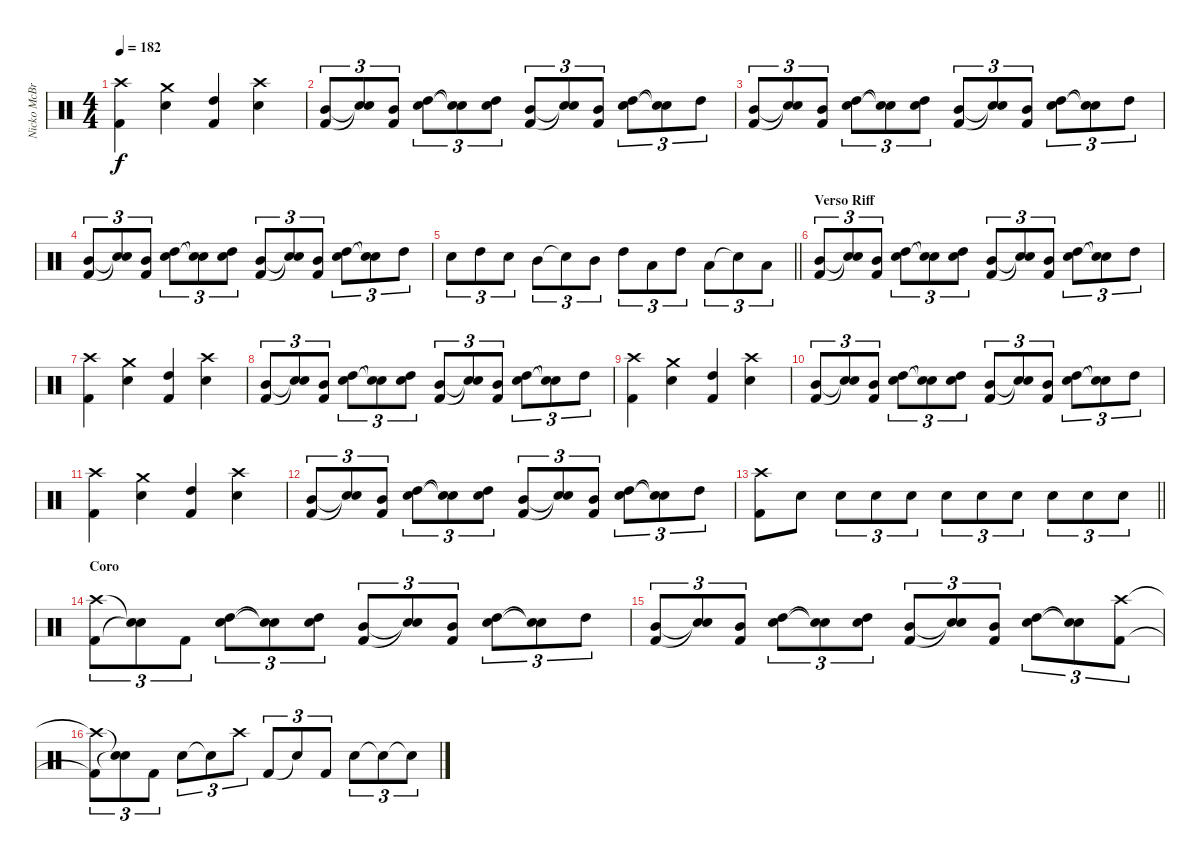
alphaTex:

\track ("Nicko McBrain" "Nicko McBr") {instrument percussion}
\staff {score}
\articulation defaults
\ts (4 4)
\tempo 182
\clef neutral
\ks c
("Kick (hit) 2" "Crash high (hit)").4{dy f} ("Snare (hit) 2" "Crash medium (hit)").4 ("High Tom (hit)" "Kick (hit) 2").4 ("Snare (hit) 2" "Crash high (hit)").4 |
("Mid Tom (hit)" "Kick (hit) 2").8{tu (3 2)} ("Snare (hit)"{t} "Snare (hit)"{t}).8{tu (3 2)} ("Mid Tom (hit)" "Kick (hit) 2").8{tu (3 2)} ("High Tom (hit)" "Snare (hit) 2").8{tu (3 2)} ("Snare (hit)"{t} "Snare (hit)"{t}).8{tu (3 2)} ("High Tom (hit)" "Snare (hit) 2").8{tu (3 2)} ("Mid Tom (hit)" "Kick (hit) 2").8{tu (3 2)} ("Snare (hit)"{t} "Snare (hit)"{t}).8{tu (3 2)} ("Mid Tom (hit)" "Kick (hit) 2").8{tu (3 2)} ("High Tom (hit)" "Snare (hit) 2").8{tu (3 2)} ("Snare (hit)"{t} "Snare (hit)"{t}).8{tu (3 2)} "High Tom (hit)".8{tu (3 2)} |
("Mid Tom (hit)" "Kick (hit) 2").8{tu (3 2)} ("Snare (hit)"{t} "Snare (hit)"{t}).8{tu (3 2)} ("Mid Tom (hit)" "Kick (hit) 2").8{tu (3 2)} ("High Tom (hit)" "Snare (hit) 2").8{tu (3 2)} ("Snare (hit)"{t} "Snare (hit)"{t}).8{tu (3 2)} ("High Tom (hit)" "Snare (hit) 2").8{tu (3 2)} ("Mid Tom (hit)" "Kick (hit) 2").8{tu (3 2)} ("Snare (hit)"{t} "Snare (hit)"{t}).8{tu (3 2)} ("Mid Tom (hit)" "Kick (hit) 2").8{tu (3 2)} ("High Tom (hit)" "Snare (hit) 2").8{tu (3 2)} ("Snare (hit)"{t} "Snare (hit)"{t}).8{tu (3 2)} "High Tom (hit)".8{tu (3 2)} |
("Mid Tom (hit)" "Kick (hit) 2").8{tu (3 2)} ("Snare (hit)"{t} "Snare (hit)"{t}).8{tu (3 2)} ("Mid Tom (hit)" "Kick (hit) 2").8{tu (3 2)} ("High Tom (hit)" "Snare (hit) 2").8{tu (3 2)} ("Snare (hit)"{t} "Snare (hit)"{t}).8{tu (3 2)} ("High Tom (hit)" "Snare (hit) 2").8{tu (3 2)} ("Mid Tom (hit)" "Kick (hit) 2").8{tu (3 2)} ("Snare (hit)"{t} "Snare (hit)"{t}).8{tu (3 2)} ("Mid Tom (hit)" "Kick (hit) 2").8{tu (3 2)} ("High Tom (hit)" "Snare (hit) 2").8{tu (3 2)} ("Snare (hit)"{t} "Snare (hit)"{t}).8{tu (3 2)} "High Tom (hit)".8{tu (3 2)} |
\barLineRight lightlight "Snare (hit) 2".8{tu (3 2)} "High Tom (hit)".8{tu (3 2)} "Snare (hit) 2".8{tu (3 2)} "Mid Tom (hit)".8{tu (3 2)} "Snare (hit)"{t}.8{tu (3 2)} "Mid Tom (hit)".8{tu (3 2)} "High Tom (hit)".8{tu (3 2)} "Low Tom (hit)".8{tu (3 2)} "High Tom (hit)".8{tu (3 2)} "Low Tom (hit)".8{tu (3 2)} "Snare (hit)"{t}.8{tu (3 2)} "Low Tom (hit)".8{tu (3 2)}
|
\section ("" "Verso Riff")
("Mid Tom (hit)" "Kick (hit) 2").8{tu (3 2)} ("Snare (hit)"{t} "Snare (hit)"{t}).8{tu (3 2)} ("Mid Tom (hit)" "Kick (hit) 2").8{tu (3 2)} ("High Tom (hit)" "Snare (hit) 2").8{tu (3 2)} ("Snare (hit)"{t} "Snare (hit)"{t}).8{tu (3 2)} ("High Tom (hit)" "Snare (hit) 2").8{tu (3 2)} ("Mid Tom (hit)" "Kick (hit) 2").8{tu (3 2)} ("Snare (hit)"{t} "Snare (hit)"{t}).8{tu (3 2)} ("Mid Tom (hit)" "Kick (hit) 2").8{tu (3 2)} ("High Tom (hit)" "Snare (hit) 2").8{tu (3 2)} ("Snare (hit)"{t} "Snare (hit)"{t}).8{tu (3 2)} "High Tom (hit)".8{tu (3 2)} |
("Kick (hit) 2" "Crash high (hit)").4 ("Snare (hit) 2" "Crash medium (hit)").4 ("High Tom (hit)" "Kick (hit) 2").4 ("Snare (hit) 2" "Crash high (hit)").4 |
("Mid Tom (hit)" "Kick (hit) 2").8{tu (3 2)} ("Snare (hit)"{t} "Snare (hit)"{t}).8{tu (3 2)} ("Mid Tom (hit)" "Kick (hit) 2").8{tu (3 2)} ("High Tom (hit)" "Snare (hit) 2").8{tu (3 2)} ("Snare (hit)"{t} "Snare (hit)"{t}).8{tu (3 2)} ("High Tom (hit)" "Snare (hit) 2").8{tu (3 2)} ("Mid Tom (hit)" "Kick (hit) 2").8{tu (3 2)} ("Snare (hit)"{t} "Snare (hit)"{t}).8{tu (3 2)} ("Mid Tom (hit)" "Kick (hit) 2").8{tu (3 2)} ("High Tom (hit)" "Snare (hit) 2").8{tu (3 2)} ("Snare (hit)"{t} "Snare (hit)"{t}).8{tu (3 2)} "High Tom (hit)".8{tu (3 2)} |
("Kick (hit) 2" "Crash high (hit)").4 ("Snare (hit) 2" "Crash medium (hit)").4 ("High Tom (hit)" "Kick (hit) 2").4 ("Snare (hit) 2" "Crash high (hit)").4 |
("Mid Tom (hit)" "Kick (hit) 2").8{tu (3 2)} ("Snare (hit)"{t} "Snare (hit)"{t}).8{tu (3 2)} ("Mid Tom (hit)" "Kick (hit) 2").8{tu (3 2)} ("High Tom (hit)" "Snare (hit) 2").8{tu (3 2)} ("Snare (hit)"{t} "Snare (hit)"{t}).8{tu (3 2)} ("High Tom (hit)" "Snare (hit) 2").8{tu (3 2)} ("Mid Tom (hit)" "Kick (hit) 2").8{tu (3 2)} ("Snare (hit)"{t} "Snare (hit)"{t}).8{tu (3 2)} ("Mid Tom (hit)" "Kick (hit) 2").8{tu (3 2)} ("High Tom (hit)" "Snare (hit) 2").8{tu (3 2)} ("Snare (hit)"{t} "Snare (hit)"{t}).8{tu (3 2)} "High Tom (hit)".8{tu (3 2)} |
("Kick (hit) 2" "Crash high (hit)").4 ("Snare (hit) 2" "Crash medium (hit)").4 ("High Tom (hit)" "Kick (hit) 2").4 ("Snare (hit) 2" "Crash high (hit)").4 |
("Mid Tom (hit)" "Kick (hit) 2").8{tu (3 2)} ("Snare (hit)"{t} "Snare (hit)"{t}).8{tu (3 2)} ("Mid Tom (hit)" "Kick (hit) 2").8{tu (3 2)} ("High Tom (hit)" "Snare (hit) 2").8{tu (3 2)} ("Snare (hit)"{t} "Snare (hit)"{t}).8{tu (3 2)} ("High Tom (hit)" "Snare (hit) 2").8{tu (3 2)} ("Mid Tom (hit)" "Kick (hit) 2").8{tu (3 2)} ("Snare (hit)"{t} "Snare (hit)"{t}).8{tu (3 2)} ("Mid Tom (hit)" "Kick (hit) 2").8{tu (3 2)} ("High Tom (hit)" "Snare (hit) 2").8{tu (3 2)} ("Snare (hit)"{t} "Snare (hit)"{t}).8{tu (3 2)} "High Tom (hit)".8{tu (3 2)} |
\barLineRight lightlight
("Kick (hit) 2" "Crash high (hit)").8 "Snare (hit) 2".8 "Snare (hit) 2".8{tu (3 2)} "Snare (hit) 2".8{tu (3 2)} "Snare (hit) 2".8{tu (3 2)} "Snare (hit) 2".8{tu (3 2)} "Snare (hit) 2".8{tu (3 2)} "Snare (hit) 2".8{tu (3 2)} "Snare (hit) 2".8{tu (3 2)} "Snare (hit) 2".8{tu (3 2)} "Snare (hit) 2".8{tu (3 2)} |
\section ("" "Coro")
("Kick (hit) 2" "Crash high (hit)").8{tu (3 2)} ("Snare (hit)"{t} "Snare (hit)"{t}).8{tu (3 2)} "Kick (hit) 2".8{tu (3 2)} ("High Tom (hit)" "Snare (hit) 2").8{tu (3 2)} ("Snare (hit)"{t} "Snare (hit)"{t}).8{tu (3 2)} ("High Tom (hit)" "Snare (hit) 2").8{tu (3 2)} ("Mid Tom (hit)" "Kick (hit) 2").8{tu (3 2)} ("Snare (hit)"{t} "Snare (hit)"{t}).8{tu (3 2)} ("Mid Tom (hit)" "Kick (hit) 2").8{tu (3 2)} ("High Tom (hit)" "Snare (hit) 2").8{tu (3 2)} ("Snare (hit)"{t} "Snare (hit)"{t}).8{tu (3 2)} "High Tom (hit)".8{tu (3 2)} |
("Mid Tom (hit)" "Kick (hit) 2").8{tu (3 2)} ("Snare (hit)"{t} "Snare (hit)"{t}).8{tu (3 2)} ("Mid Tom (hit)" "Kick (hit) 2").8{tu (3 2)} ("High Tom (hit)" "Snare (hit) 2").8{tu (3 2)} ("Snare (hit)"{t} "Snare (hit)"{t}).8{tu (3 2)} ("High Tom (hit)" "Snare (hit) 2").8{tu (3 2)} ("Mid Tom (hit)" "Kick (hit) 2").8{tu (3 2)} ("Snare (hit)"{t} "Snare (hit)"{t}).8{tu (3 2)} ("Mid Tom (hit)" "Kick (hit) 2").8{tu (3 2)} ("High Tom (hit)" "Snare (hit) 2").8{tu (3 2)} ("Snare (hit)"{t} "Snare (hit)"{t}).8{tu (3 2)} ("Kick (hit) 2" "Crash high (hit)").8{tu (3 2)} |
("Kick (hit) 2"{t} "Crash high (hit)"{t}).8{tu (3 2)} ("Snare (hit)"{t} "Snare (hit)"{t}).8{tu (3 2)} "Kick (hit) 2".8{tu (3 2)} "Snare (hit) 2".8{tu (3 2)} "Snare (hit)"{t}.8{tu (3 2)} "Crash high (hit)".8{tu (3 2)} "Kick (hit) 2".8{tu (3 2)} "Snare (hit)"{t}.8{tu (3 2)} "Kick (hit) 2".8{tu (3 2)} "Snare (hit) 2".8{tu (3 2)} "Snare (hit)"{t}.8{tu (3 2)} "Snare (hit)"{t}.8{tu (3 2)}
